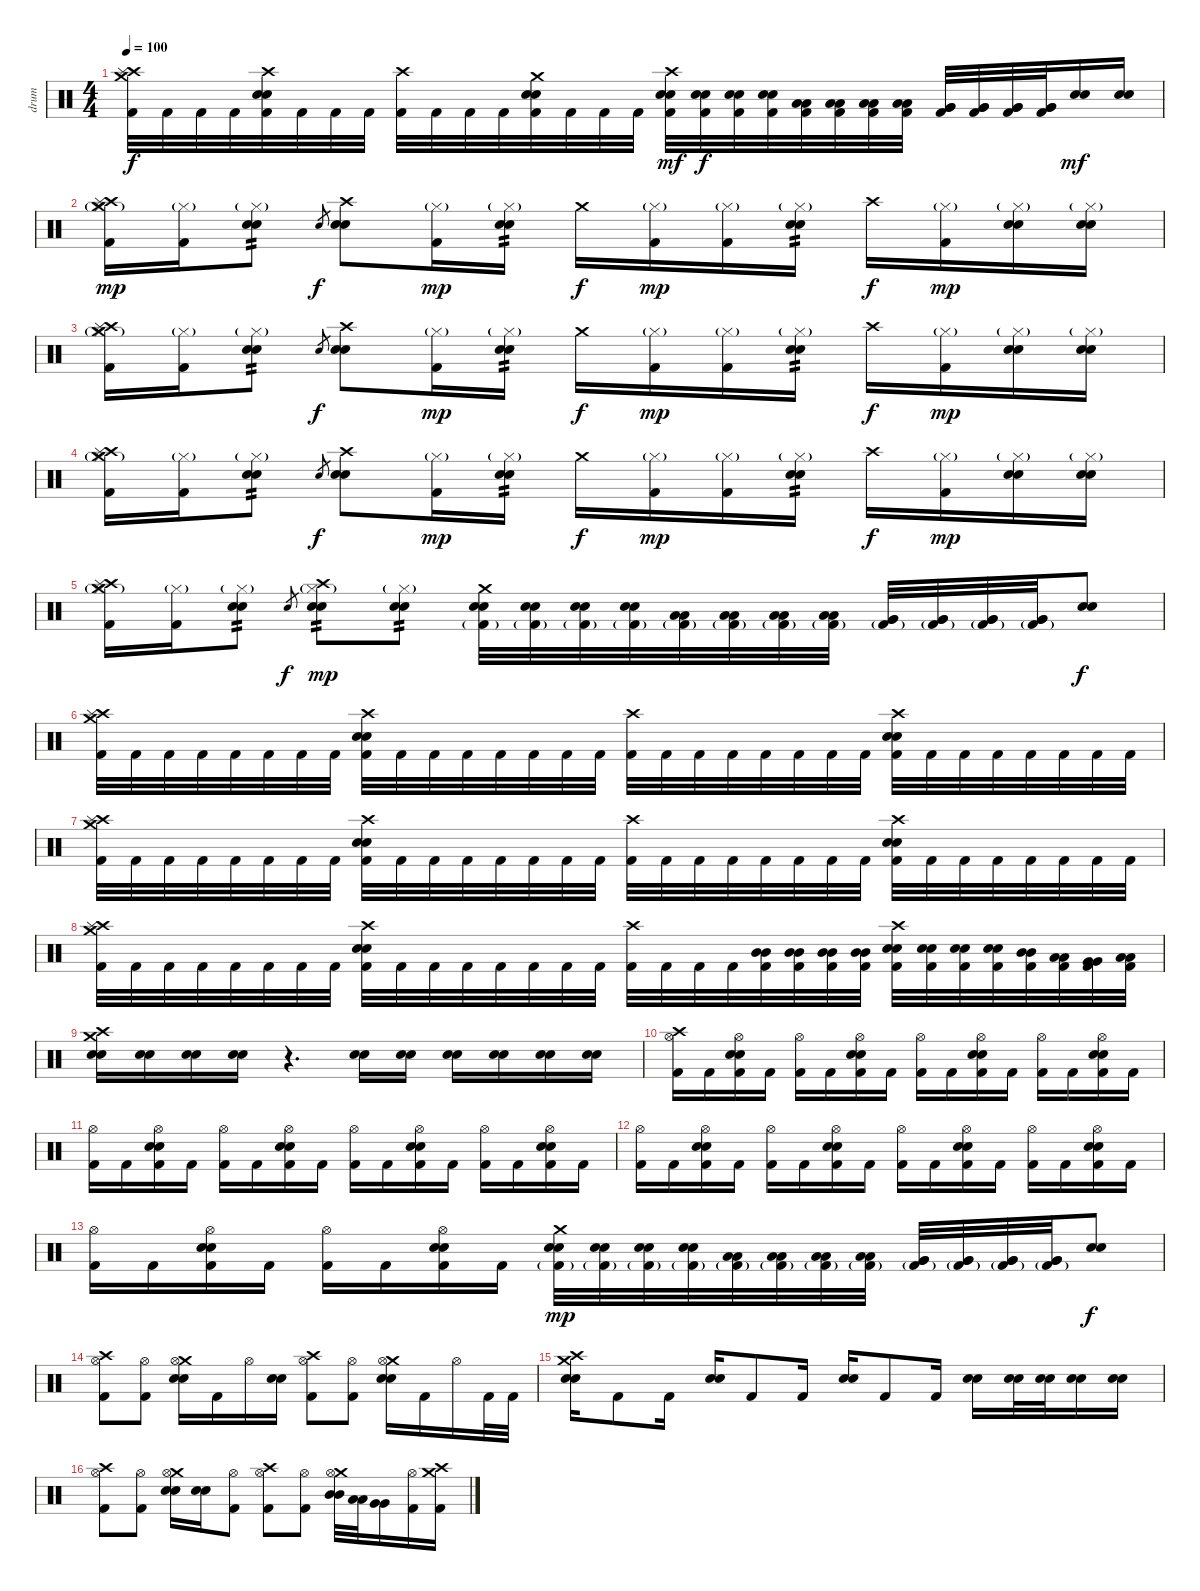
\track ("drum" "drum") {instrument percussion}
\staff {score}
\articulation defaults
\ts (4 4)
\tempo 100
\clef neutral
\ks c
("Crash medium (hit)" "Crash high (hit)" "Splash (hit)" "Kick (hit) 2").32{dy f} "Kick (hit) 2".32 "Kick (hit) 2".32 "Kick (hit) 2".32 ("Crash high (hit)" "Electric Snare (hit)" "Snare (hit) 2" "Kick (hit) 2").32 "Kick (hit) 2".32 "Kick (hit) 2".32 "Kick (hit) 2".32 ("Crash high (hit)" "Kick (hit) 2").32 "Kick (hit) 2".32 "Kick (hit) 2".32 "Kick (hit) 2".32 ("Crash medium (hit)" "Electric Snare (hit)" "Snare (hit) 2" "Kick (hit) 2").32 "Kick (hit) 2".32 "Kick (hit) 2".32 "Kick (hit) 2".32 ("Crash high (hit)" "Electric Snare (hit)" "Snare (hit) 2" "Kick (hit) 2").32{dy mf} ("Electric Snare (hit)" "Snare (hit) 2" "Kick (hit) 2").32{dy f} ("Electric Snare (hit)" "Snare (hit) 2" "Kick (hit) 2").32 ("Electric Snare (hit)" "Snare (hit) 2" "Kick (hit) 2").32 ("Low Tom (hit)" "Low Tom (hit)" "Kick (hit) 2").32 ("Low Tom (hit)" "Low Tom (hit)" "Kick (hit) 2").32 ("Low Tom (hit)" "Low Tom (hit)" "Kick (hit) 2").32 ("Low Tom (hit)" "Low Tom (hit)" "Kick (hit) 2").32 ("Very Low Tom (hit)" "Very Low Tom (hit)" "Kick (hit) 2").32 ("Very Low Tom (hit)" "Very Low Tom (hit)" "Kick (hit) 2").32 ("Very Low Tom (hit)" "Very Low Tom (hit)" "Kick (hit) 2").32 ("Very Low Tom (hit)" "Very Low Tom (hit)" "Kick (hit) 2").32 ("Electric Snare (hit)" "Snare (hit) 2").16{dy mf} ("Electric Snare (hit)" "Snare (hit) 2").16 |
("Crash medium (hit)" "Crash high (hit)" "Splash (hit)" "Kick (hit) 2" "Hi-Hat (closed)"{g}).16{dy mp} ("Kick (hit) 2" "Hi-Hat (closed)"{g}).16 ("Electric Snare (hit)" "Snare (hit) 2" "Hi-Hat (closed)"{g}).8{bd 120 tp 2} "Electric Snare (hit)".8{gr dy f} ("Crash high (hit)" "Electric Snare (hit)" "Snare (hit) 2").8 ("Kick (hit) 2" "Hi-Hat (closed)"{g}).16{dy mp} ("Electric Snare (hit)" "Snare (hit) 2" "Hi-Hat (closed)"{g}).16{tp 2} "Crash medium (hit)".16{dy f} ("Kick (hit) 2" "Hi-Hat (closed)"{g}).16{dy mp} ("Kick (hit) 2" "Hi-Hat (closed)"{g}).16 ("Electric Snare (hit)" "Snare (hit) 2" "Hi-Hat (closed)"{g}).16{tp 2} "Crash high (hit)".16{dy f} ("Kick (hit) 2" "Hi-Hat (closed)"{g}).16{dy mp} ("Electric Snare (hit)" "Snare (hit) 2" "Hi-Hat (closed)"{g}).16 ("Electric Snare (hit)" "Snare (hit) 2" "Hi-Hat (closed)"{g}).16 |
("Crash medium (hit)" "Crash high (hit)" "Splash (hit)" "Kick (hit) 2" "Hi-Hat (closed)"{g}).16 ("Kick (hit) 2" "Hi-Hat (closed)"{g}).16 ("Electric Snare (hit)" "Snare (hit) 2" "Hi-Hat (closed)"{g}).8{bd 120 tp 2} "Electric Snare (hit)".8{gr dy f} ("Crash high (hit)" "Electric Snare (hit)" "Snare (hit) 2").8 ("Kick (hit) 2" "Hi-Hat (closed)"{g}).16{dy mp} ("Electric Snare (hit)" "Snare (hit) 2" "Hi-Hat (closed)"{g}).16{tp 2} "Crash medium (hit)".16{dy f} ("Kick (hit) 2" "Hi-Hat (closed)"{g}).16{dy mp} ("Kick (hit) 2" "Hi-Hat (closed)"{g}).16 ("Electric Snare (hit)" "Snare (hit) 2" "Hi-Hat (closed)"{g}).16{tp 2} "Crash high (hit)".16{dy f} ("Kick (hit) 2" "Hi-Hat (closed)"{g}).16{dy mp} ("Electric Snare (hit)" "Snare (hit) 2" "Hi-Hat (closed)"{g}).16 ("Electric Snare (hit)" "Snare (hit) 2" "Hi-Hat (closed)"{g}).16 |
("Crash medium (hit)" "Crash high (hit)" "Splash (hit)" "Kick (hit) 2" "Hi-Hat (closed)"{g}).16 ("Kick (hit) 2" "Hi-Hat (closed)"{g}).16 ("Electric Snare (hit)" "Snare (hit) 2" "Hi-Hat (closed)"{g}).8{bd 120 tp 2} "Electric Snare (hit)".8{gr dy f} ("Crash high (hit)" "Electric Snare (hit)" "Snare (hit) 2").8 ("Kick (hit) 2" "Hi-Hat (closed)"{g}).16{dy mp} ("Electric Snare (hit)" "Snare (hit) 2" "Hi-Hat (closed)"{g}).16{tp 2} "Crash medium (hit)".16{dy f} ("Kick (hit) 2" "Hi-Hat (closed)"{g}).16{dy mp} ("Kick (hit) 2" "Hi-Hat (closed)"{g}).16 ("Electric Snare (hit)" "Snare (hit) 2" "Hi-Hat (closed)"{g}).16{tp 2} "Crash high (hit)".16{dy f} ("Kick (hit) 2" "Hi-Hat (closed)"{g}).16{dy mp} ("Electric Snare (hit)" "Snare (hit) 2" "Hi-Hat (closed)"{g}).16 ("Electric Snare (hit)" "Snare (hit) 2" "Hi-Hat (closed)"{g}).16 |
("Crash medium (hit)" "Crash high (hit)" "Splash (hit)" "Kick (hit) 2" "Hi-Hat (closed)"{g}).16 ("Kick (hit) 2" "Hi-Hat (closed)"{g}).16 ("Electric Snare (hit)" "Snare (hit) 2" "Hi-Hat (closed)"{g}).8{bd 120 tp 2} "Snare (hit) 2".8{gr dy f} ("Crash high (hit)" "Electric Snare (hit)" "Snare (hit) 2" "Hi-Hat (closed)"{g}).8{tp 2 dy mp} ("Electric Snare (hit)" "Snare (hit) 2" "Hi-Hat (closed)"{g}).8{bd 120 tp 2} ("Crash medium (hit)" "Electric Snare (hit)" "Snare (hit) 2" "Kick (hit) 2"{g}).32 ("Electric Snare (hit)" "Snare (hit) 2" "Kick (hit) 2"{g}).32 ("Electric Snare (hit)" "Snare (hit) 2" "Kick (hit) 2"{g}).32 ("Electric Snare (hit)" "Snare (hit) 2" "Kick (hit) 2"{g}).32 ("Low Tom (hit)" "Low Tom (hit)" "Kick (hit) 2"{g}).32 ("Low Tom (hit)" "Low Tom (hit)" "Kick (hit) 2"{g}).32 ("Low Tom (hit)" "Low Tom (hit)" "Kick (hit) 2"{g}).32 ("Low Tom (hit)" "Low Tom (hit)" "Kick (hit) 2"{g}).32 ("Very Low Tom (hit)" "Very Low Tom (hit)" "Kick (hit) 2"{g}).32 ("Very Low Tom (hit)" "Very Low Tom (hit)" "Kick (hit) 2"{g}).32 ("Very Low Tom (hit)" "Very Low Tom (hit)" "Kick (hit) 2"{g}).32 ("Very Low Tom (hit)" "Very Low Tom (hit)" "Kick (hit) 2"{g}).32 ("Electric Snare (hit)" "Snare (hit) 2").8{bd 60 dy f} |
("Crash medium (hit)" "Crash high (hit)" "Splash (hit)" "Kick (hit) 2").32 "Kick (hit) 2".32 "Kick (hit) 2".32 "Kick (hit) 2".32 "Kick (hit) 2".32 "Kick (hit) 2".32 "Kick (hit) 2".32 "Kick (hit) 2".32 ("Crash high (hit)" "Electric Snare (hit)" "Snare (hit) 2" "Kick (hit) 2").32 "Kick (hit) 2".32 "Kick (hit) 2".32 "Kick (hit) 2".32 "Kick (hit) 2".32 "Kick (hit) 2".32 "Kick (hit) 2".32 "Kick (hit) 2".32 ("Crash high (hit)" "Kick (hit) 2").32 "Kick (hit) 2".32 "Kick (hit) 2".32 "Kick (hit) 2".32 "Kick (hit) 2".32 "Kick (hit) 2".32 "Kick (hit) 2".32 "Kick (hit) 2".32 ("Crash high (hit)" "Electric Snare (hit)" "Snare (hit) 2" "Kick (hit) 2").32 "Kick (hit) 2".32 "Kick (hit) 2".32 "Kick (hit) 2".32 "Kick (hit) 2".32 "Kick (hit) 2".32 "Kick (hit) 2".32 "Kick (hit) 2".32 |
("Crash medium (hit)" "Crash high (hit)" "Splash (hit)" "Kick (hit) 2").32 "Kick (hit) 2".32 "Kick (hit) 2".32 "Kick (hit) 2".32 "Kick (hit) 2".32 "Kick (hit) 2".32 "Kick (hit) 2".32 "Kick (hit) 2".32 ("Crash high (hit)" "Electric Snare (hit)" "Snare (hit) 2" "Kick (hit) 2").32 "Kick (hit) 2".32 "Kick (hit) 2".32 "Kick (hit) 2".32 "Kick (hit) 2".32 "Kick (hit) 2".32 "Kick (hit) 2".32 "Kick (hit) 2".32 ("Crash high (hit)" "Kick (hit) 2").32 "Kick (hit) 2".32 "Kick (hit) 2".32 "Kick (hit) 2".32 "Kick (hit) 2".32 "Kick (hit) 2".32 "Kick (hit) 2".32 "Kick (hit) 2".32 ("Crash high (hit)" "Electric Snare (hit)" "Snare (hit) 2" "Kick (hit) 2").32 "Kick (hit) 2".32 "Kick (hit) 2".32 "Kick (hit) 2".32 "Kick (hit) 2".32 "Kick (hit) 2".32 "Kick (hit) 2".32 "Kick (hit) 2".32 |
("Crash medium (hit)" "Crash high (hit)" "Splash (hit)" "Kick (hit) 2").32 "Kick (hit) 2".32 "Kick (hit) 2".32 "Kick (hit) 2".32 "Kick (hit) 2".32 "Kick (hit) 2".32 "Kick (hit) 2".32 "Kick (hit) 2".32 ("Crash high (hit)" "Electric Snare (hit)" "Snare (hit) 2" "Kick (hit) 2").32 "Kick (hit) 2".32 "Kick (hit) 2".32 "Kick (hit) 2".32 "Kick (hit) 2".32 "Kick (hit) 2".32 "Kick (hit) 2".32 "Kick (hit) 2".32 ("Crash high (hit)" "Kick (hit) 2").32 "Kick (hit) 2".32 "Kick (hit) 2".32 "Kick (hit) 2".32 ("Mid Tom (hit)" "Mid Tom (hit)" "Kick (hit) 2").32 ("Mid Tom (hit)" "Mid Tom (hit)" "Kick (hit) 2").32 ("Mid Tom (hit)" "Mid Tom (hit)" "Kick (hit) 2").32 ("Mid Tom (hit)" "Mid Tom (hit)" "Kick (hit) 2").32 ("Crash high (hit)" "Electric Snare (hit)" "Snare (hit) 2" "Kick (hit) 2").32 ("Electric Snare (hit)" "Snare (hit) 2" "Kick (hit) 2").32 ("Electric Snare (hit)" "Snare (hit) 2" "Kick (hit) 2").32 ("Electric Snare (hit)" "Snare (hit) 2" "Kick (hit) 2").32 ("Mid Tom (hit)" "Mid Tom (hit)" "Kick (hit) 2").32 ("Low Tom (hit)" "Low Tom (hit)" "Kick (hit) 2").32 ("Very Low Tom (hit)" "Very Low Tom (hit)" "Kick (hit) 2").32 ("Low Floor Tom (hit)" "Low Floor Tom (hit)" "Kick (hit) 2").32 |
("Crash high (hit)" "Crash medium (hit)" "Electric Snare (hit)" "Snare (hit) 2").16 ("Electric Snare (hit)" "Snare (hit) 2").16 ("Electric Snare (hit)" "Snare (hit) 2").16 ("Electric Snare (hit)" "Snare (hit) 2").16 r.4{d} ("Electric Snare (hit)" "Snare (hit) 2").16 ("Electric Snare (hit)" "Snare (hit) 2").16 ("Electric Snare (hit)" "Snare (hit) 2").16 ("Electric Snare (hit)" "Snare (hit) 2").16 ("Electric Snare (hit)" "Snare (hit) 2").16 ("Electric Snare (hit)" "Snare (hit) 2").16 |
("Crash high (hit)" "Hi-Hat (open)" "Kick (hit) 2").16 "Kick (hit) 2".16 ("Hi-Hat (open)" "Electric Snare (hit)" "Snare (hit) 2" "Kick (hit) 2").16 "Kick (hit) 2".16 ("Hi-Hat (open)" "Kick (hit) 2").16 "Kick (hit) 2".16 ("Hi-Hat (open)" "Electric Snare (hit)" "Snare (hit) 2" "Kick (hit) 2").16 "Kick (hit) 2".16 ("Hi-Hat (open)" "Kick (hit) 2").16 "Kick (hit) 2".16 ("Hi-Hat (open)" "Electric Snare (hit)" "Snare (hit) 2" "Kick (hit) 2").16 "Kick (hit) 2".16 ("Hi-Hat (open)" "Kick (hit) 2").16 "Kick (hit) 2".16 ("Hi-Hat (open)" "Electric Snare (hit)" "Snare (hit) 2" "Kick (hit) 2").16 "Kick (hit) 2".16 |
("Hi-Hat (open)" "Kick (hit) 2").16 "Kick (hit) 2".16 ("Hi-Hat (open)" "Electric Snare (hit)" "Snare (hit) 2" "Kick (hit) 2").16 "Kick (hit) 2".16 ("Hi-Hat (open)" "Kick (hit) 2").16 "Kick (hit) 2".16 ("Hi-Hat (open)" "Electric Snare (hit)" "Snare (hit) 2" "Kick (hit) 2").16 "Kick (hit) 2".16 ("Hi-Hat (open)" "Kick (hit) 2").16 "Kick (hit) 2".16 ("Hi-Hat (open)" "Electric Snare (hit)" "Snare (hit) 2" "Kick (hit) 2").16 "Kick (hit) 2".16 ("Hi-Hat (open)" "Kick (hit) 2").16 "Kick (hit) 2".16 ("Hi-Hat (open)" "Electric Snare (hit)" "Snare (hit) 2" "Kick (hit) 2").16 "Kick (hit) 2".16 |
("Hi-Hat (open)" "Kick (hit) 2").16 "Kick (hit) 2".16 ("Hi-Hat (open)" "Electric Snare (hit)" "Snare (hit) 2" "Kick (hit) 2").16 "Kick (hit) 2".16 ("Hi-Hat (open)" "Kick (hit) 2").16 "Kick (hit) 2".16 ("Hi-Hat (open)" "Electric Snare (hit)" "Snare (hit) 2" "Kick (hit) 2").16 "Kick (hit) 2".16 ("Hi-Hat (open)" "Kick (hit) 2").16 "Kick (hit) 2".16 ("Hi-Hat (open)" "Electric Snare (hit)" "Snare (hit) 2" "Kick (hit) 2").16 "Kick (hit) 2".16 ("Hi-Hat (open)" "Kick (hit) 2").16 "Kick (hit) 2".16 ("Hi-Hat (open)" "Electric Snare (hit)" "Snare (hit) 2" "Kick (hit) 2").16 "Kick (hit) 2".16 |
("Hi-Hat (open)" "Kick (hit) 2").16 "Kick (hit) 2".16 ("Hi-Hat (open)" "Electric Snare (hit)" "Snare (hit) 2" "Kick (hit) 2").16 "Kick (hit) 2".16 ("Hi-Hat (open)" "Kick (hit) 2").16 "Kick (hit) 2".16 ("Hi-Hat (open)" "Electric Snare (hit)" "Snare (hit) 2" "Kick (hit) 2").16 "Kick (hit) 2".16 ("Crash medium (hit)" "Electric Snare (hit)" "Snare (hit) 2" "Kick (hit) 2"{g}).32{dy mp} ("Electric Snare (hit)" "Snare (hit) 2" "Kick (hit) 2"{g}).32 ("Electric Snare (hit)" "Snare (hit) 2" "Kick (hit) 2"{g}).32 ("Electric Snare (hit)" "Snare (hit) 2" "Kick (hit) 2"{g}).32 ("Low Tom (hit)" "Low Tom (hit)" "Kick (hit) 2"{g}).32 ("Low Tom (hit)" "Low Tom (hit)" "Kick (hit) 2"{g}).32 ("Low Tom (hit)" "Low Tom (hit)" "Kick (hit) 2"{g}).32 ("Low Tom (hit)" "Low Tom (hit)" "Kick (hit) 2"{g}).32 ("Very Low Tom (hit)" "Very Low Tom (hit)" "Kick (hit) 2"{g}).32 ("Very Low Tom (hit)" "Very Low Tom (hit)" "Kick (hit) 2"{g}).32 ("Very Low Tom (hit)" "Very Low Tom (hit)" "Kick (hit) 2"{g}).32 ("Very Low Tom (hit)" "Very Low Tom (hit)" "Kick (hit) 2"{g}).32 ("Electric Snare (hit)" "Snare (hit) 2").8{bd 60 dy f} |
("Crash high (hit)" "Hi-Hat (open)" "Kick (hit) 2").8 ("Hi-Hat (open)" "Kick (hit) 2").8 ("Crash medium (hit)" "Hi-Hat (open)" "Electric Snare (hit)" "Snare (hit) 2").16 "Kick (hit) 2".16 "Hi-Hat (open)".16 ("Electric Snare (hit)" "Snare (hit) 2").16 ("Crash high (hit)" "Hi-Hat (open)" "Kick (hit) 2").8 ("Hi-Hat (open)" "Kick (hit) 2").8 ("Crash medium (hit)" "Hi-Hat (open)" "Electric Snare (hit)" "Snare (hit) 2").16 "Kick (hit) 2".16 "Hi-Hat (open)".16 "Kick (hit) 2".32 "Kick (hit) 2".32 |
("Crash medium (hit)" "Crash high (hit)" "Electric Snare (hit)" "Snare (hit) 2").16 "Kick (hit) 2".8 "Kick (hit) 2".16 ("Electric Snare (hit)" "Snare (hit) 2").16 "Kick (hit) 2".8 "Kick (hit) 2".16 ("Electric Snare (hit)" "Snare (hit) 2").16 "Kick (hit) 2".8 "Kick (hit) 2".16 ("Electric Snare (hit)" "Snare (hit) 2").16 ("Electric Snare (hit)" "Snare (hit) 2").32 ("Electric Snare (hit)" "Snare (hit) 2").32 ("Electric Snare (hit)" "Snare (hit) 2").16 ("Electric Snare (hit)" "Snare (hit) 2").16 |
("Crash high (hit)" "Hi-Hat (open)" "Kick (hit) 2").8 ("Hi-Hat (open)" "Kick (hit) 2").8 ("Crash medium (hit)" "Hi-Hat (open)" "Electric Snare (hit)" "Snare (hit) 2").16 ("Electric Snare (hit)" "Snare (hit) 2").16 ("Hi-Hat (open)" "Kick (hit) 2").8 ("Crash high (hit)" "Hi-Hat (open)" "Kick (hit) 2").8 ("Hi-Hat (open)" "Kick (hit) 2").8 ("Crash medium (hit)" "Hi-Hat (open)" "Mid Tom (hit)" "Mid Tom (hit)").32 ("Low Tom (hit)" "Low Tom (hit)").32 ("Very Low Tom (hit)" "Very Low Tom (hit)").16 ("Hi-Hat (open)" "Kick (hit) 2").16 ("Crash high (hit)" "Crash medium (hit)" "Kick (hit) 2").16
